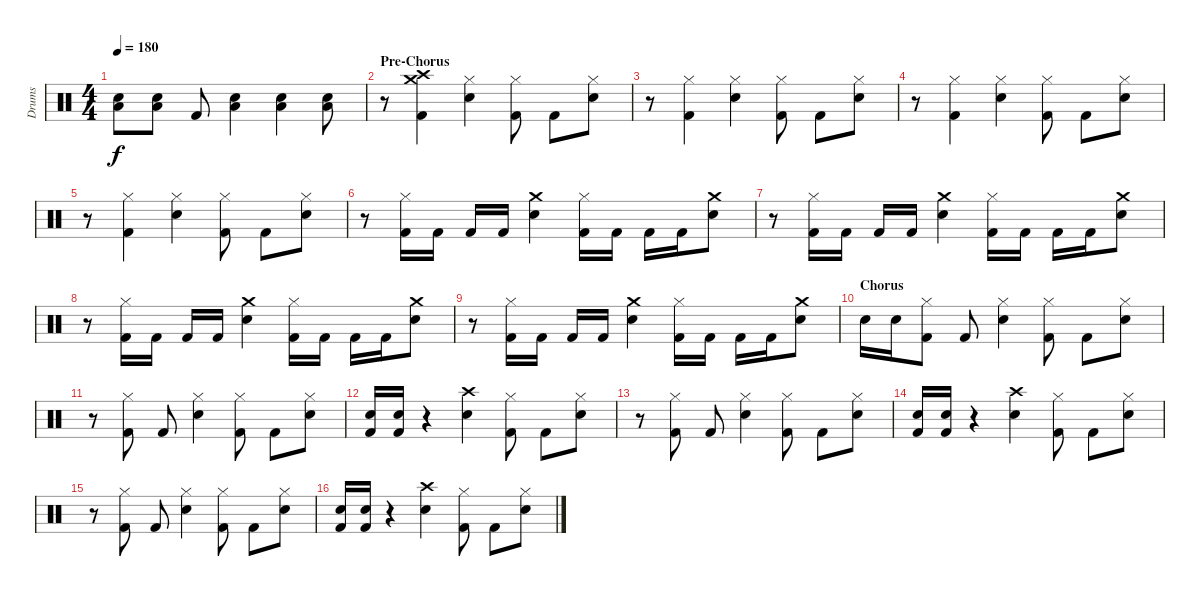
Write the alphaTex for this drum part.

\track ("Drums" "Drums") {instrument percussion}
\staff {score}
\articulation defaults
\ts (4 4)
\tempo 180
\clef neutral
\ks c
("Snare (hit) 2" "Low Floor Tom (hit)").8{dy f} ("Snare (hit) 2" "Low Floor Tom (hit)").8 "Kick (hit) 2".8 ("Snare (hit) 2" "Low Floor Tom (hit)").4 ("Snare (hit) 2" "Low Floor Tom (hit)").4 ("Snare (hit) 2" "Low Floor Tom (hit)").8 |
\section ("" "Pre-Chorus")
r.8 ("Crash medium (hit)" "Crash high (hit)" "Kick (hit) 2").4 ("Hi-Hat (closed)" "Snare (hit) 2").4 ("Hi-Hat (closed)" "Kick (hit) 2").8 "Kick (hit) 2".8 ("Hi-Hat (closed)" "Snare (hit) 2").8 |
r.8 ("Hi-Hat (closed)" "Kick (hit) 2").4 ("Hi-Hat (closed)" "Snare (hit) 2").4 ("Hi-Hat (closed)" "Kick (hit) 2").8 "Kick (hit) 2".8 ("Hi-Hat (closed)" "Snare (hit) 2").8 |
r.8 ("Hi-Hat (closed)" "Kick (hit) 2").4 ("Hi-Hat (closed)" "Snare (hit) 2").4 ("Hi-Hat (closed)" "Kick (hit) 2").8 "Kick (hit) 2".8 ("Hi-Hat (closed)" "Snare (hit) 2").8 |
r.8 ("Hi-Hat (closed)" "Kick (hit) 2").4 ("Hi-Hat (closed)" "Snare (hit) 2").4 ("Hi-Hat (closed)" "Kick (hit) 2").8 "Kick (hit) 2".8 ("Hi-Hat (closed)" "Snare (hit) 2").8 |
r.8 ("Hi-Hat (closed)" "Kick (hit) 2").16 "Kick (hit) 2".16 "Kick (hit) 2".16 "Kick (hit) 2".16 ("Crash medium (hit)" "Snare (hit) 2").4 ("Hi-Hat (closed)" "Kick (hit) 2").16 "Kick (hit) 2".16 "Kick (hit) 2".16 "Kick (hit) 2".16 ("Crash medium (hit)" "Snare (hit) 2").8 |
r.8 ("Hi-Hat (closed)" "Kick (hit) 2").16 "Kick (hit) 2".16 "Kick (hit) 2".16 "Kick (hit) 2".16 ("Crash medium (hit)" "Snare (hit) 2").4 ("Hi-Hat (closed)" "Kick (hit) 2").16 "Kick (hit) 2".16 "Kick (hit) 2".16 "Kick (hit) 2".16 ("Crash medium (hit)" "Snare (hit) 2").8 |
r.8 ("Hi-Hat (closed)" "Kick (hit) 2").16 "Kick (hit) 2".16 "Kick (hit) 2".16 "Kick (hit) 2".16 ("Crash medium (hit)" "Snare (hit) 2").4 ("Hi-Hat (closed)" "Kick (hit) 2").16 "Kick (hit) 2".16 "Kick (hit) 2".16 "Kick (hit) 2".16 ("Crash medium (hit)" "Snare (hit) 2").8 |
r.8 ("Hi-Hat (closed)" "Kick (hit) 2").16 "Kick (hit) 2".16 "Kick (hit) 2".16 "Kick (hit) 2".16 ("Crash medium (hit)" "Snare (hit) 2").4 ("Hi-Hat (closed)" "Kick (hit) 2").16 "Kick (hit) 2".16 "Kick (hit) 2".16 "Kick (hit) 2".16 ("Crash medium (hit)" "Snare (hit) 2").8 |
\section ("" "Chorus")
"Snare (hit) 2".16 "Snare (hit) 2".16 ("Hi-Hat (closed)" "Kick (hit) 2").8 "Kick (hit) 2".8 ("Hi-Hat (closed)" "Snare (hit) 2").4 ("Hi-Hat (closed)" "Kick (hit) 2").8 "Kick (hit) 2".8 ("Hi-Hat (closed)" "Snare (hit) 2").8 |
r.8 ("Hi-Hat (closed)" "Kick (hit) 2").8 "Kick (hit) 2".8 ("Hi-Hat (closed)" "Snare (hit) 2").4 ("Hi-Hat (closed)" "Kick (hit) 2").8 "Kick (hit) 2".8 ("Hi-Hat (closed)" "Snare (hit) 2").8 |
("Snare (hit) 2" "Kick (hit) 2").16 ("Snare (hit) 2" "Kick (hit) 2").16 r.4 ("Crash high (hit)" "Snare (hit) 2").4 ("Hi-Hat (closed)" "Kick (hit) 2").8 "Kick (hit) 2".8 ("Hi-Hat (closed)" "Snare (hit) 2").8 |
r.8 ("Hi-Hat (closed)" "Kick (hit) 2").8 "Kick (hit) 2".8 ("Hi-Hat (closed)" "Snare (hit) 2").4 ("Hi-Hat (closed)" "Kick (hit) 2").8 "Kick (hit) 2".8 ("Hi-Hat (closed)" "Snare (hit) 2").8 |
("Snare (hit) 2" "Kick (hit) 2").16 ("Snare (hit) 2" "Kick (hit) 2").16 r.4 ("Crash high (hit)" "Snare (hit) 2").4 ("Hi-Hat (closed)" "Kick (hit) 2").8 "Kick (hit) 2".8 ("Hi-Hat (closed)" "Snare (hit) 2").8 |
r.8 ("Hi-Hat (closed)" "Kick (hit) 2").8 "Kick (hit) 2".8 ("Hi-Hat (closed)" "Snare (hit) 2").4 ("Hi-Hat (closed)" "Kick (hit) 2").8 "Kick (hit) 2".8 ("Hi-Hat (closed)" "Snare (hit) 2").8 |
("Snare (hit) 2" "Kick (hit) 2").16 ("Snare (hit) 2" "Kick (hit) 2").16 r.4 ("Crash high (hit)" "Snare (hit) 2").4 ("Hi-Hat (closed)" "Kick (hit) 2").8 "Kick (hit) 2".8 ("Hi-Hat (closed)" "Snare (hit) 2").8
